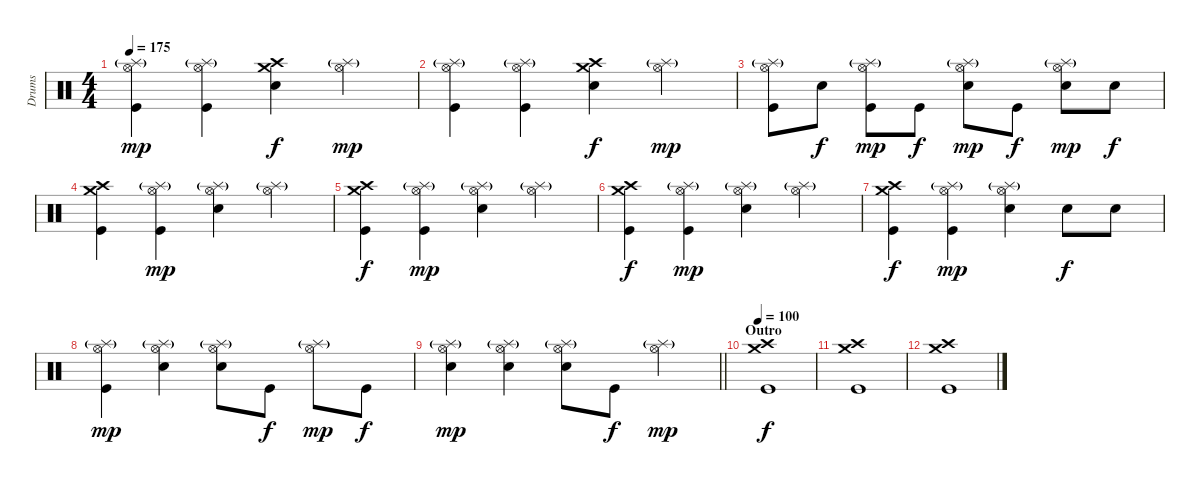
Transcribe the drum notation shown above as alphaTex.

\track ("Drums" "Drums") {instrument percussion}
\staff {score}
\articulation defaults
\ts (4 4)
\tempo 175
\clef neutral
\ks c
("Splash (hit)"{g} "Hi-Hat (open)" "Kick (hit)").4{dy mp} ("Splash (hit)"{g} "Hi-Hat (open)" "Kick (hit)").4 ("Crash medium (hit)" "Crash high (hit)" "Electric Snare (hit)").4{dy f} ("Splash (hit)"{g} "Hi-Hat (open)").4{dy mp} |
("Splash (hit)"{g} "Hi-Hat (open)" "Kick (hit)").4 ("Splash (hit)"{g} "Hi-Hat (open)" "Kick (hit)").4 ("Crash medium (hit)" "Crash high (hit)" "Electric Snare (hit)").4{dy f} ("Splash (hit)"{g} "Hi-Hat (open)").4{dy mp} |
("Splash (hit)"{g} "Hi-Hat (open)" "Kick (hit)").8 "Electric Snare (hit)".8{dy f} ("Splash (hit)"{g} "Hi-Hat (open)" "Kick (hit)").8{dy mp} "Kick (hit)".8{dy f} ("Splash (hit)"{g} "Hi-Hat (open)" "Electric Snare (hit)").8{dy mp} "Kick (hit)".8{dy f} ("Splash (hit)"{g} "Hi-Hat (open)" "Electric Snare (hit)").8{dy mp} "Electric Snare (hit)".8{dy f} |
("Crash medium (hit)" "Crash high (hit)" "Kick (hit)").4 ("Splash (hit)"{g} "Hi-Hat (open)" "Kick (hit)").4{dy mp} ("Splash (hit)"{g} "Hi-Hat (open)" "Electric Snare (hit)").4 ("Splash (hit)"{g} "Hi-Hat (open)").4 |
("Crash medium (hit)" "Crash high (hit)" "Kick (hit)").4{dy f} ("Splash (hit)"{g} "Hi-Hat (open)" "Kick (hit)").4{dy mp} ("Splash (hit)"{g} "Hi-Hat (open)" "Electric Snare (hit)").4 ("Splash (hit)"{g} "Hi-Hat (open)").4 |
("Crash medium (hit)" "Crash high (hit)" "Kick (hit)").4{dy f} ("Splash (hit)"{g} "Hi-Hat (open)" "Kick (hit)").4{dy mp} ("Splash (hit)"{g} "Hi-Hat (open)" "Electric Snare (hit)").4 ("Splash (hit)"{g} "Hi-Hat (open)").4 |
("Crash medium (hit)" "Crash high (hit)" "Kick (hit)").4{dy f} ("Splash (hit)"{g} "Hi-Hat (open)" "Kick (hit)").4{dy mp} ("Splash (hit)"{g} "Hi-Hat (open)" "Electric Snare (hit)").4 "Electric Snare (hit)".8{dy f} "Electric Snare (hit)".8 |
("Splash (hit)"{g} "Hi-Hat (open)" "Kick (hit)").4{dy mp} ("Splash (hit)"{g} "Hi-Hat (open)" "Electric Snare (hit)").4 ("Splash (hit)"{g} "Hi-Hat (open)" "Electric Snare (hit)").8 "Kick (hit)".8{dy f} ("Splash (hit)"{g} "Hi-Hat (open)").8{dy mp} "Kick (hit)".8{dy f} |
\barLineRight lightlight
("Splash (hit)"{g} "Hi-Hat (open)" "Electric Snare (hit)").4{dy mp} ("Splash (hit)"{g} "Hi-Hat (open)" "Electric Snare (hit)").4 ("Splash (hit)"{g} "Hi-Hat (open)" "Electric Snare (hit)").8 "Kick (hit)".8{dy f} ("Splash (hit)"{g} "Hi-Hat (open)").4{dy mp} |
\section ("" "Outro")
\tempo 100
("Crash medium (hit)" "Crash high (hit)" "Kick (hit)").1{dy f} |
("Crash medium (hit)" "Crash high (hit)" "Kick (hit)").1 |
("Crash medium (hit)" "Crash high (hit)" "Kick (hit)").1
